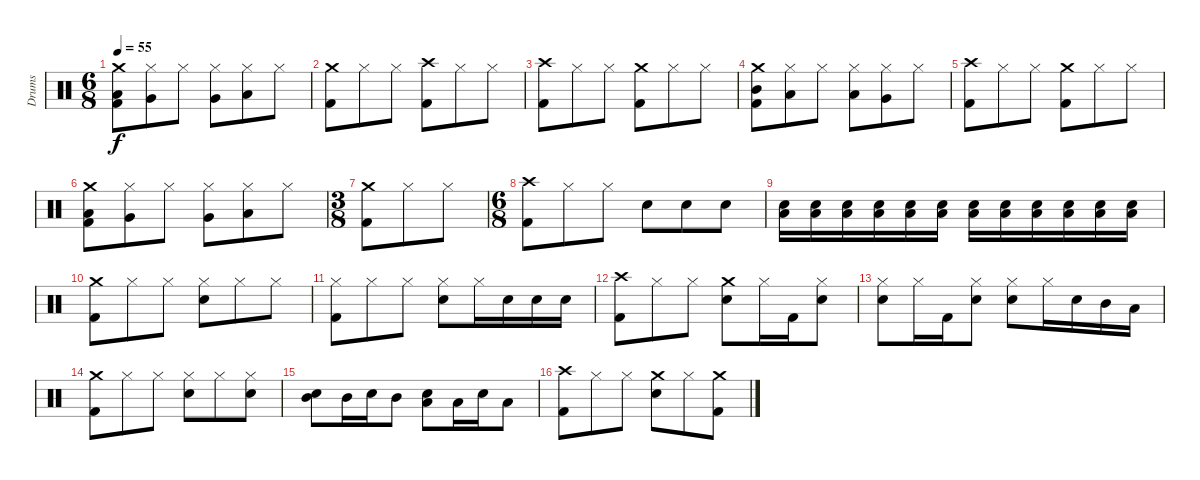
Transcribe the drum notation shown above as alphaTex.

\track ("Drums" "Drums") {instrument percussion}
\staff {score}
\articulation defaults
\ts (6 8)
\tempo 55
\clef neutral
\ks c
("Crash medium (hit)" "Kick (hit) 2" "Low Tom (hit)").8{dy f} ("Hi-Hat (closed)" "Very Low Tom (hit)").8 "Hi-Hat (closed)".8 ("Hi-Hat (closed)" "Very Low Tom (hit)").8 ("Hi-Hat (closed)" "Low Floor Tom (hit)").8 "Hi-Hat (closed)".8 |
("Crash medium (hit)" "Kick (hit) 2").8 "Hi-Hat (closed)".8 "Hi-Hat (closed)".8 ("Crash high (hit)" "Kick (hit) 2").8 "Hi-Hat (closed)".8 "Hi-Hat (closed)".8 |
("Crash high (hit)" "Kick (hit) 2").8 "Hi-Hat (closed)".8 "Hi-Hat (closed)".8 ("Crash medium (hit)" "Kick (hit) 2").8 "Hi-Hat (closed)".8 "Hi-Hat (closed)".8 |
("Crash medium (hit)" "Kick (hit) 2" "Mid Tom (hit)").8 ("Hi-Hat (closed)" "Low Tom (hit)").8 "Hi-Hat (closed)".8 ("Hi-Hat (closed)" "Low Tom (hit)").8 ("Hi-Hat (closed)" "Very Low Tom (hit)").8 "Hi-Hat (closed)".8 |
("Crash high (hit)" "Kick (hit) 2").8 "Hi-Hat (closed)".8 "Hi-Hat (closed)".8 ("Crash medium (hit)" "Kick (hit) 2").8 "Hi-Hat (closed)".8 "Hi-Hat (closed)".8 |
("Crash medium (hit)" "Kick (hit) 2" "Low Tom (hit)").8 ("Hi-Hat (closed)" "Very Low Tom (hit)").8 "Hi-Hat (closed)".8 ("Hi-Hat (closed)" "Very Low Tom (hit)").8 ("Hi-Hat (closed)" "Low Floor Tom (hit)").8 "Hi-Hat (closed)".8 |
\ts (3 8)
("Crash medium (hit)" "Kick (hit) 2").8 "Hi-Hat (closed)".8 "Hi-Hat (closed)".8 |
\ts (6 8)
("Crash high (hit)" "Kick (hit) 2").8 "Hi-Hat (closed)".8 "Hi-Hat (closed)".8 "Snare (hit) 2".8 "Snare (hit) 2".8 "Snare (hit) 2".8 |
("Low Floor Tom (hit)" "Snare (hit) 2").16 ("Low Floor Tom (hit)" "Snare (hit) 2").16 ("Low Floor Tom (hit)" "Snare (hit) 2").16 ("Low Floor Tom (hit)" "Snare (hit) 2").16 ("Low Floor Tom (hit)" "Snare (hit) 2").16 ("Low Floor Tom (hit)" "Snare (hit) 2").16 ("Low Floor Tom (hit)" "Snare (hit) 2").16 ("Low Floor Tom (hit)" "Snare (hit) 2").16 ("Low Floor Tom (hit)" "Snare (hit) 2").16 ("Low Floor Tom (hit)" "Snare (hit) 2").16 ("Low Floor Tom (hit)" "Snare (hit) 2").16 ("Low Floor Tom (hit)" "Snare (hit) 2").16 |
("Crash medium (hit)" "Kick (hit) 2").8 "Hi-Hat (closed)".8 "Hi-Hat (closed)".8 ("Hi-Hat (closed)" "Snare (hit) 2").8 "Hi-Hat (closed)".8 "Hi-Hat (closed)".8 |
("Hi-Hat (closed)" "Kick (hit) 2").8 "Hi-Hat (closed)".8 "Hi-Hat (closed)".8 ("Hi-Hat (closed)" "Snare (hit) 2").8 "Hi-Hat (closed)".16 "Snare (hit) 2".16 "Snare (hit) 2".16 "Snare (hit) 2".16 |
("Crash high (hit)" "Kick (hit) 2").8 "Hi-Hat (closed)".8 "Hi-Hat (closed)".8 ("Crash medium (hit)" "Snare (hit) 2").8 "Hi-Hat (closed)".16 "Kick (hit) 2".16 ("Hi-Hat (closed)" "Snare (hit) 2").8 |
("Hi-Hat (closed)" "Snare (hit) 2").8 "Hi-Hat (closed)".16 "Kick (hit) 2".16 ("Hi-Hat (closed)" "Snare (hit) 2").8 ("Hi-Hat (closed)" "Snare (hit) 2").8 "Hi-Hat (closed)".16 "Snare (hit) 2".16 "Mid Tom (hit)".16 "Low Tom (hit)".16 |
("Crash medium (hit)" "Kick (hit) 2").8 "Hi-Hat (closed)".8 "Hi-Hat (closed)".8 ("Hi-Hat (closed)" "Snare (hit) 2").8 "Hi-Hat (closed)".8 ("Hi-Hat (closed)" "Snare (hit) 2").8 |
("Mid Tom (hit)" "Snare (hit) 2").8 "Mid Tom (hit)".16 "Snare (hit) 2".16 "Mid Tom (hit)".8 ("Low Tom (hit)" "Snare (hit) 2").8 "Low Tom (hit)".16 "Snare (hit) 2".16 "Low Tom (hit)".8 |
("Crash high (hit)" "Kick (hit) 2").8 "Hi-Hat (closed)".8 "Hi-Hat (closed)".8 ("Crash medium (hit)" "Snare (hit) 2").8 "Hi-Hat (closed)".8 ("Crash medium (hit)" "Kick (hit) 2").8
